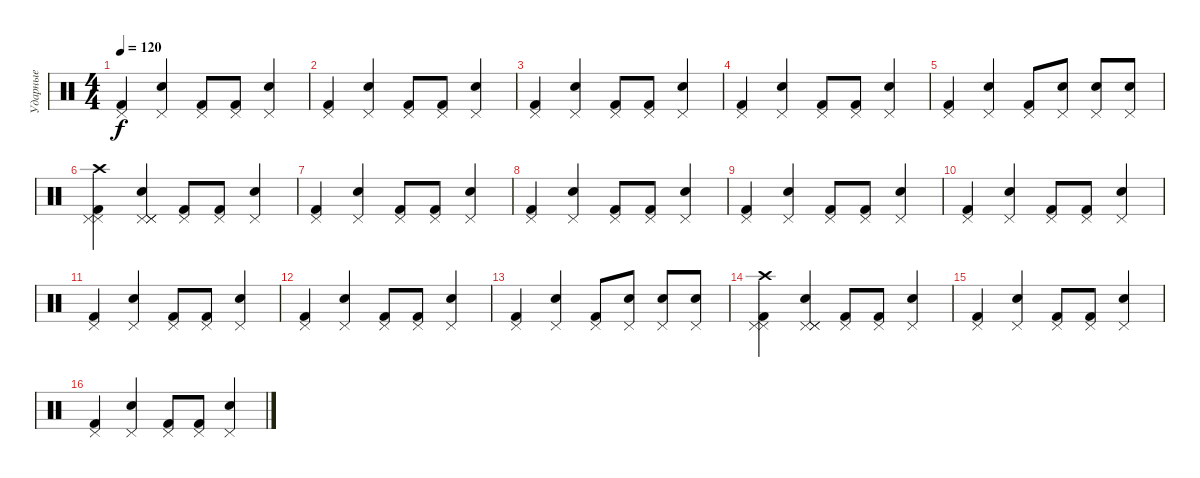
\track ("Ударные" "Ударные") {instrument percussion}
\staff {score}
\articulation defaults
\ts (4 4)
\tempo 120
\clef neutral
\ks c
("Kick (hit) 2" "Pedal Hi-Hat (hit)").4{dy f} ("Electric Snare (hit)" "Pedal Hi-Hat (hit)").4 ("Kick (hit) 2" "Pedal Hi-Hat (hit)").8 ("Kick (hit) 2" "Pedal Hi-Hat (hit)").8 ("Electric Snare (hit)" "Pedal Hi-Hat (hit)").4 |
("Kick (hit) 2" "Pedal Hi-Hat (hit)").4 ("Electric Snare (hit)" "Pedal Hi-Hat (hit)").4 ("Kick (hit) 2" "Pedal Hi-Hat (hit)").8 ("Kick (hit) 2" "Pedal Hi-Hat (hit)").8 ("Electric Snare (hit)" "Pedal Hi-Hat (hit)").4 |
("Kick (hit) 2" "Pedal Hi-Hat (hit)").4 ("Electric Snare (hit)" "Pedal Hi-Hat (hit)").4 ("Kick (hit) 2" "Pedal Hi-Hat (hit)").8 ("Kick (hit) 2" "Pedal Hi-Hat (hit)").8 ("Electric Snare (hit)" "Pedal Hi-Hat (hit)").4 |
("Kick (hit) 2" "Pedal Hi-Hat (hit)").4 ("Electric Snare (hit)" "Pedal Hi-Hat (hit)").4 ("Kick (hit) 2" "Pedal Hi-Hat (hit)").8 ("Kick (hit) 2" "Pedal Hi-Hat (hit)").8 ("Electric Snare (hit)" "Pedal Hi-Hat (hit)").4 |
("Kick (hit) 2" "Pedal Hi-Hat (hit)").4 ("Electric Snare (hit)" "Pedal Hi-Hat (hit)").4 ("Kick (hit) 2" "Pedal Hi-Hat (hit)").8 ("Electric Snare (hit)" "Pedal Hi-Hat (hit)").8 ("Electric Snare (hit)" "Pedal Hi-Hat (hit)").8 ("Electric Snare (hit)" "Pedal Hi-Hat (hit)").8 |
("Kick (hit) 2" "Pedal Hi-Hat (hit)" "Crash high (hit)" "Pedal Hi-Hat (hit)").4 ("Electric Snare (hit)" "Pedal Hi-Hat (hit)" "Pedal Hi-Hat (hit)" "Pedal Hi-Hat (hit)").4 ("Kick (hit) 2" "Pedal Hi-Hat (hit)").8 ("Kick (hit) 2" "Pedal Hi-Hat (hit)").8 ("Electric Snare (hit)" "Pedal Hi-Hat (hit)").4 |
("Kick (hit) 2" "Pedal Hi-Hat (hit)").4 ("Electric Snare (hit)" "Pedal Hi-Hat (hit)").4 ("Kick (hit) 2" "Pedal Hi-Hat (hit)").8 ("Kick (hit) 2" "Pedal Hi-Hat (hit)").8 ("Electric Snare (hit)" "Pedal Hi-Hat (hit)").4 |
("Kick (hit) 2" "Pedal Hi-Hat (hit)").4 ("Electric Snare (hit)" "Pedal Hi-Hat (hit)").4 ("Kick (hit) 2" "Pedal Hi-Hat (hit)").8 ("Kick (hit) 2" "Pedal Hi-Hat (hit)").8 ("Electric Snare (hit)" "Pedal Hi-Hat (hit)").4 |
("Kick (hit) 2" "Pedal Hi-Hat (hit)").4 ("Electric Snare (hit)" "Pedal Hi-Hat (hit)").4 ("Kick (hit) 2" "Pedal Hi-Hat (hit)").8 ("Kick (hit) 2" "Pedal Hi-Hat (hit)").8 ("Electric Snare (hit)" "Pedal Hi-Hat (hit)").4 |
("Kick (hit) 2" "Pedal Hi-Hat (hit)").4 ("Electric Snare (hit)" "Pedal Hi-Hat (hit)").4 ("Kick (hit) 2" "Pedal Hi-Hat (hit)").8 ("Kick (hit) 2" "Pedal Hi-Hat (hit)").8 ("Electric Snare (hit)" "Pedal Hi-Hat (hit)").4 |
("Kick (hit) 2" "Pedal Hi-Hat (hit)").4 ("Electric Snare (hit)" "Pedal Hi-Hat (hit)").4 ("Kick (hit) 2" "Pedal Hi-Hat (hit)").8 ("Kick (hit) 2" "Pedal Hi-Hat (hit)").8 ("Electric Snare (hit)" "Pedal Hi-Hat (hit)").4 |
("Kick (hit) 2" "Pedal Hi-Hat (hit)").4 ("Electric Snare (hit)" "Pedal Hi-Hat (hit)").4 ("Kick (hit) 2" "Pedal Hi-Hat (hit)").8 ("Kick (hit) 2" "Pedal Hi-Hat (hit)").8 ("Electric Snare (hit)" "Pedal Hi-Hat (hit)").4 |
("Kick (hit) 2" "Pedal Hi-Hat (hit)").4 ("Electric Snare (hit)" "Pedal Hi-Hat (hit)").4 ("Kick (hit) 2" "Pedal Hi-Hat (hit)").8 ("Electric Snare (hit)" "Pedal Hi-Hat (hit)").8 ("Electric Snare (hit)" "Pedal Hi-Hat (hit)").8 ("Electric Snare (hit)" "Pedal Hi-Hat (hit)").8 |
("Kick (hit) 2" "Pedal Hi-Hat (hit)" "Crash high (hit)" "Pedal Hi-Hat (hit)").4 ("Electric Snare (hit)" "Pedal Hi-Hat (hit)" "Pedal Hi-Hat (hit)" "Pedal Hi-Hat (hit)").4 ("Kick (hit) 2" "Pedal Hi-Hat (hit)").8 ("Kick (hit) 2" "Pedal Hi-Hat (hit)").8 ("Electric Snare (hit)" "Pedal Hi-Hat (hit)").4 |
("Kick (hit) 2" "Pedal Hi-Hat (hit)").4 ("Electric Snare (hit)" "Pedal Hi-Hat (hit)").4 ("Kick (hit) 2" "Pedal Hi-Hat (hit)").8 ("Kick (hit) 2" "Pedal Hi-Hat (hit)").8 ("Electric Snare (hit)" "Pedal Hi-Hat (hit)").4 |
("Kick (hit) 2" "Pedal Hi-Hat (hit)").4 ("Electric Snare (hit)" "Pedal Hi-Hat (hit)").4 ("Kick (hit) 2" "Pedal Hi-Hat (hit)").8 ("Kick (hit) 2" "Pedal Hi-Hat (hit)").8 ("Electric Snare (hit)" "Pedal Hi-Hat (hit)").4
